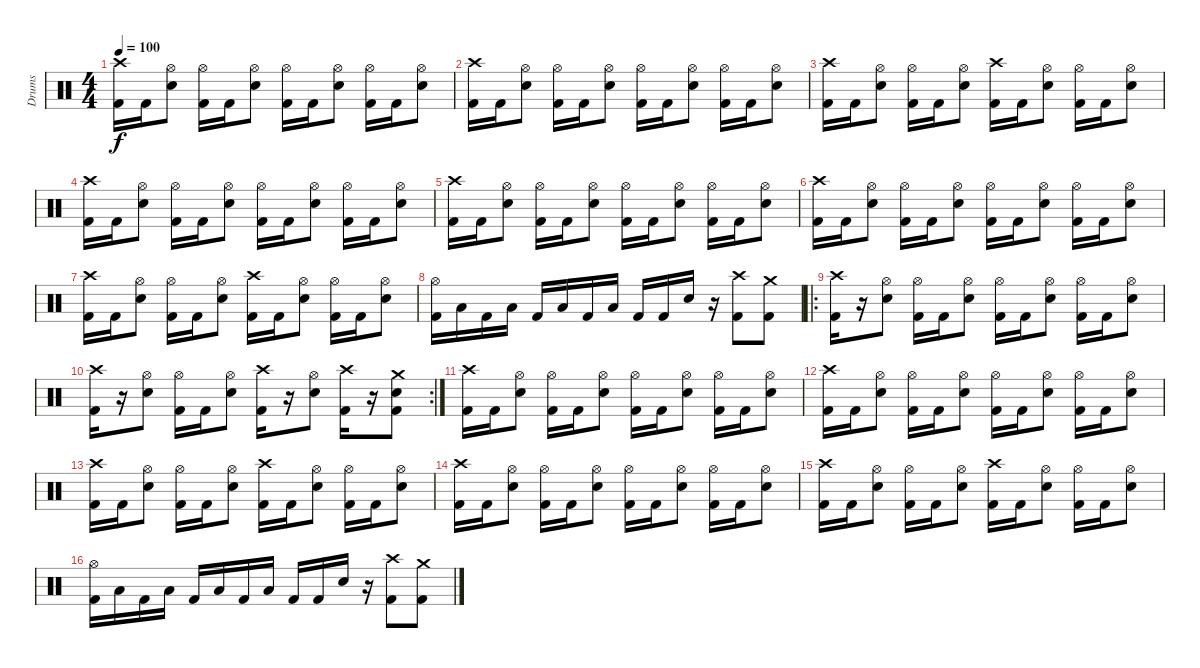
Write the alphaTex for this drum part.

\track ("Drums" "Drums") {instrument percussion}
\staff {score}
\articulation defaults
\ts (4 4)
\tempo 100
\clef neutral
\ks c
("Crash high (hit)" "Kick (hit) 2").16{dy f} "Kick (hit) 2".16 ("Hi-Hat (open)" "Electric Snare (hit)").8 ("Hi-Hat (open)" "Kick (hit) 2").16 "Kick (hit) 2".16 ("Hi-Hat (open)" "Electric Snare (hit)").8 ("Hi-Hat (open)" "Kick (hit) 2").16 "Kick (hit) 2".16 ("Hi-Hat (open)" "Electric Snare (hit)").8 ("Hi-Hat (open)" "Kick (hit) 2").16 "Kick (hit) 2".16 ("Hi-Hat (open)" "Electric Snare (hit)").8 |
("Crash high (hit)" "Kick (hit) 2").16 "Kick (hit) 2".16 ("Hi-Hat (open)" "Electric Snare (hit)").8 ("Hi-Hat (open)" "Kick (hit) 2").16 "Kick (hit) 2".16 ("Hi-Hat (open)" "Electric Snare (hit)").8 ("Hi-Hat (open)" "Kick (hit) 2").16 "Kick (hit) 2".16 ("Hi-Hat (open)" "Electric Snare (hit)").8 ("Hi-Hat (open)" "Kick (hit) 2").16 "Kick (hit) 2".16 ("Hi-Hat (open)" "Electric Snare (hit)").8 |
("Crash high (hit)" "Kick (hit) 2").16 "Kick (hit) 2".16 ("Hi-Hat (open)" "Electric Snare (hit)").8 ("Hi-Hat (open)" "Kick (hit) 2").16 "Kick (hit) 2".16 ("Hi-Hat (open)" "Electric Snare (hit)").8 ("Crash high (hit)" "Kick (hit) 2").16 "Kick (hit) 2".16 ("Hi-Hat (open)" "Electric Snare (hit)").8 ("Hi-Hat (open)" "Kick (hit) 2").16 "Kick (hit) 2".16 ("Hi-Hat (open)" "Electric Snare (hit)").8 |
("Crash high (hit)" "Kick (hit) 2").16 "Kick (hit) 2".16 ("Hi-Hat (open)" "Electric Snare (hit)").8 ("Hi-Hat (open)" "Kick (hit) 2").16 "Kick (hit) 2".16 ("Hi-Hat (open)" "Electric Snare (hit)").8 ("Hi-Hat (open)" "Kick (hit) 2").16 "Kick (hit) 2".16 ("Hi-Hat (open)" "Electric Snare (hit)").8 ("Hi-Hat (open)" "Kick (hit) 2").16 "Kick (hit) 2".16 ("Hi-Hat (open)" "Electric Snare (hit)").8 |
("Crash high (hit)" "Kick (hit) 2").16 "Kick (hit) 2".16 ("Hi-Hat (open)" "Electric Snare (hit)").8 ("Hi-Hat (open)" "Kick (hit) 2").16 "Kick (hit) 2".16 ("Hi-Hat (open)" "Electric Snare (hit)").8 ("Hi-Hat (open)" "Kick (hit) 2").16 "Kick (hit) 2".16 ("Hi-Hat (open)" "Electric Snare (hit)").8 ("Hi-Hat (open)" "Kick (hit) 2").16 "Kick (hit) 2".16 ("Hi-Hat (open)" "Electric Snare (hit)").8 |
("Crash high (hit)" "Kick (hit) 2").16 "Kick (hit) 2".16 ("Hi-Hat (open)" "Electric Snare (hit)").8 ("Hi-Hat (open)" "Kick (hit) 2").16 "Kick (hit) 2".16 ("Hi-Hat (open)" "Electric Snare (hit)").8 ("Hi-Hat (open)" "Kick (hit) 2").16 "Kick (hit) 2".16 ("Hi-Hat (open)" "Electric Snare (hit)").8 ("Hi-Hat (open)" "Kick (hit) 2").16 "Kick (hit) 2".16 ("Hi-Hat (open)" "Electric Snare (hit)").8 |
("Crash high (hit)" "Kick (hit) 2").16 "Kick (hit) 2".16 ("Hi-Hat (open)" "Electric Snare (hit)").8 ("Hi-Hat (open)" "Kick (hit) 2").16 "Kick (hit) 2".16 ("Hi-Hat (open)" "Electric Snare (hit)").8 ("Crash high (hit)" "Kick (hit) 2").16 "Kick (hit) 2".16 ("Hi-Hat (open)" "Electric Snare (hit)").8 ("Hi-Hat (open)" "Kick (hit) 2").16 "Kick (hit) 2".16 ("Hi-Hat (open)" "Electric Snare (hit)").8 |
("Hi-Hat (open)" "Kick (hit) 2").16 "Low Tom (hit)".16 "Kick (hit) 2".16 "Low Tom (hit)".16 "Kick (hit) 2".16 "Low Tom (hit)".16 "Kick (hit) 2".16 "Low Tom (hit)".16 "Kick (hit) 2".16 "Kick (hit) 2".16 "Electric Snare (hit)".16 r.16 ("Crash high (hit)" "Kick (hit) 2").8 ("Crash medium (hit)" "Kick (hit) 2").8 |
\ro
("Crash high (hit)" "Kick (hit) 2").16 r.16 ("Hi-Hat (open)" "Electric Snare (hit)").8 ("Hi-Hat (open)" "Kick (hit) 2").16 "Kick (hit) 2".16 ("Hi-Hat (open)" "Electric Snare (hit)").8 ("Hi-Hat (open)" "Kick (hit) 2").16 "Kick (hit) 2".16 ("Hi-Hat (open)" "Electric Snare (hit)").8 ("Hi-Hat (open)" "Kick (hit) 2").16 "Kick (hit) 2".16 ("Hi-Hat (open)" "Electric Snare (hit)").8 |
\rc 2
("Crash high (hit)" "Kick (hit) 2").16 r.16 ("Hi-Hat (open)" "Electric Snare (hit)").8 ("Hi-Hat (open)" "Kick (hit) 2").16 "Kick (hit) 2".16 ("Hi-Hat (open)" "Electric Snare (hit)").8 ("Crash high (hit)" "Kick (hit) 2").16 r.16 ("Hi-Hat (open)" "Electric Snare (hit)").8 ("Crash high (hit)" "Kick (hit) 2").16 r.16 ("Crash medium (hit)" "Electric Snare (hit)" "Kick (hit) 2").8 |
("Crash high (hit)" "Kick (hit) 2").16 "Kick (hit) 2".16 ("Hi-Hat (open)" "Electric Snare (hit)").8 ("Hi-Hat (open)" "Kick (hit) 2").16 "Kick (hit) 2".16 ("Hi-Hat (open)" "Electric Snare (hit)").8 ("Hi-Hat (open)" "Kick (hit) 2").16 "Kick (hit) 2".16 ("Hi-Hat (open)" "Electric Snare (hit)").8 ("Hi-Hat (open)" "Kick (hit) 2").16 "Kick (hit) 2".16 ("Hi-Hat (open)" "Electric Snare (hit)").8 |
("Crash high (hit)" "Kick (hit) 2").16 "Kick (hit) 2".16 ("Hi-Hat (open)" "Electric Snare (hit)").8 ("Hi-Hat (open)" "Kick (hit) 2").16 "Kick (hit) 2".16 ("Hi-Hat (open)" "Electric Snare (hit)").8 ("Hi-Hat (open)" "Kick (hit) 2").16 "Kick (hit) 2".16 ("Hi-Hat (open)" "Electric Snare (hit)").8 ("Hi-Hat (open)" "Kick (hit) 2").16 "Kick (hit) 2".16 ("Hi-Hat (open)" "Electric Snare (hit)").8 |
("Crash high (hit)" "Kick (hit) 2").16 "Kick (hit) 2".16 ("Hi-Hat (open)" "Electric Snare (hit)").8 ("Hi-Hat (open)" "Kick (hit) 2").16 "Kick (hit) 2".16 ("Hi-Hat (open)" "Electric Snare (hit)").8 ("Crash high (hit)" "Kick (hit) 2").16 "Kick (hit) 2".16 ("Hi-Hat (open)" "Electric Snare (hit)").8 ("Hi-Hat (open)" "Kick (hit) 2").16 "Kick (hit) 2".16 ("Hi-Hat (open)" "Electric Snare (hit)").8 |
("Crash high (hit)" "Kick (hit) 2").16 "Kick (hit) 2".16 ("Hi-Hat (open)" "Electric Snare (hit)").8 ("Hi-Hat (open)" "Kick (hit) 2").16 "Kick (hit) 2".16 ("Hi-Hat (open)" "Electric Snare (hit)").8 ("Hi-Hat (open)" "Kick (hit) 2").16 "Kick (hit) 2".16 ("Hi-Hat (open)" "Electric Snare (hit)").8 ("Hi-Hat (open)" "Kick (hit) 2").16 "Kick (hit) 2".16 ("Hi-Hat (open)" "Electric Snare (hit)").8 |
("Crash high (hit)" "Kick (hit) 2").16 "Kick (hit) 2".16 ("Hi-Hat (open)" "Electric Snare (hit)").8 ("Hi-Hat (open)" "Kick (hit) 2").16 "Kick (hit) 2".16 ("Hi-Hat (open)" "Electric Snare (hit)").8 ("Crash high (hit)" "Kick (hit) 2").16 "Kick (hit) 2".16 ("Hi-Hat (open)" "Electric Snare (hit)").8 ("Hi-Hat (open)" "Kick (hit) 2").16 "Kick (hit) 2".16 ("Hi-Hat (open)" "Electric Snare (hit)").8 |
("Hi-Hat (open)" "Kick (hit) 2").16 "Low Tom (hit)".16 "Kick (hit) 2".16 "Low Tom (hit)".16 "Kick (hit) 2".16 "Low Tom (hit)".16 "Kick (hit) 2".16 "Low Tom (hit)".16 "Kick (hit) 2".16 "Kick (hit) 2".16 "Electric Snare (hit)".16 r.16 ("Crash high (hit)" "Kick (hit) 2").8 ("Crash medium (hit)" "Kick (hit) 2").8
